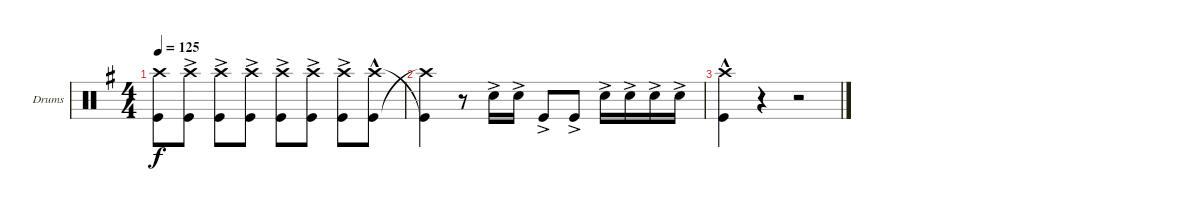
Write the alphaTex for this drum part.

\defaultSystemsLayout 4
\bracketExtendMode groupsimilarinstruments
\firstSystemTrackNameOrientation horizontal
\otherSystemsTrackNameOrientation horizontal
\track ("Mark Cavarzan Drums" "Drums") {instrument percussion}
\staff {score}
\articulation defaults
\ts (4 4)
\tempo 125
\clef neutral
\ks g
("Crash high (hit)"{t} "Kick (hit)"{t}).8{dy f} ("Kick (hit)"{ac} "Crash high (hit)"{ac}).8 ("Kick (hit)"{ac} "Crash high (hit)"{ac}).8 ("Kick (hit)"{ac} "Crash high (hit)"{ac}).8 ("Kick (hit)"{ac} "Crash high (hit)"{ac}).8 ("Kick (hit)"{ac} "Crash high (hit)"{ac}).8 ("Kick (hit)"{ac} "Crash high (hit)"{ac}).8 ("Kick (hit)"{hac} "Crash high (hit)"{hac}).8 |
("Crash high (hit)"{t} "Kick (hit)"{t}).4 r.8 "Snare (hit) 2"{ac}.16 "Snare (hit) 2"{ac}.16 "Kick (hit)"{ac}.8 "Kick (hit)"{ac}.8 "Snare (hit) 2"{ac}.16 "Snare (hit) 2"{ac}.16 "Snare (hit) 2"{ac}.16 "Snare (hit) 2"{ac}.16 |
("Crash high (hit)"{hac} "Kick (hit)"{hac}).4 r.4 r.2
